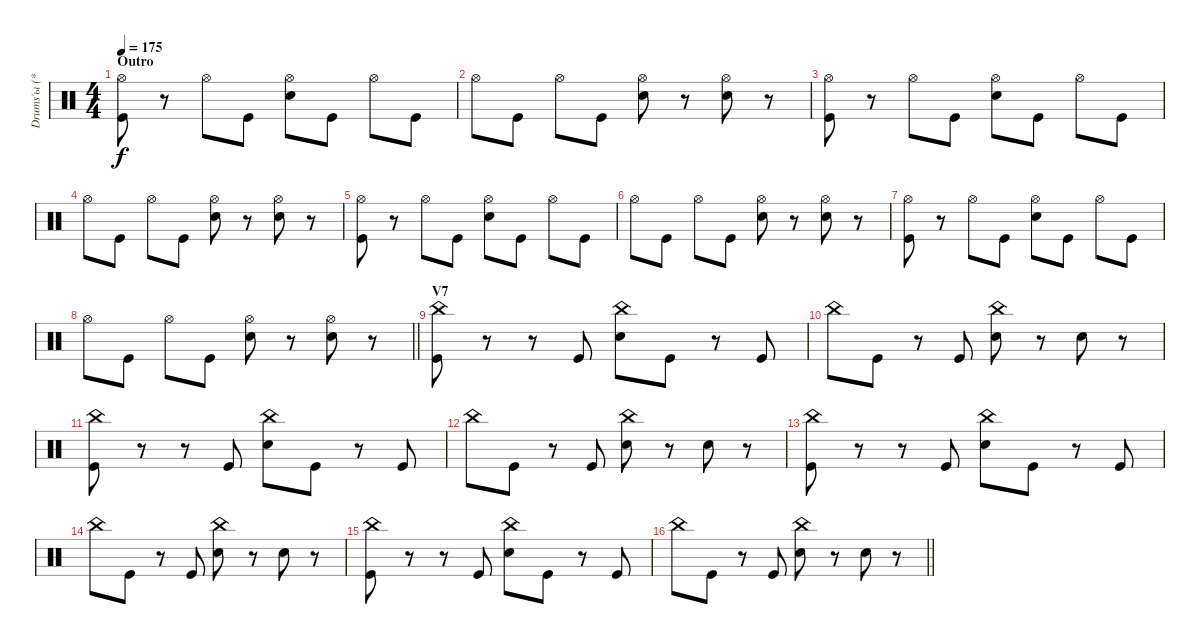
\track ("Drums'ы (***)" "Drums'ы (*") {instrument percussion}
\staff {score}
\articulation defaults
\ts (4 4)
\section ("" "Outro")
\tempo 175
\clef neutral
\ks c
("Hi-Hat (open)" "Kick (hit)").8{dy f} r.8 "Hi-Hat (open)".8 "Kick (hit)".8 ("Hi-Hat (open)" "Electric Snare (hit)").8 "Kick (hit)".8 "Hi-Hat (open)".8 "Kick (hit)".8 |
"Hi-Hat (open)".8 "Kick (hit)".8 "Hi-Hat (open)".8 "Kick (hit)".8 ("Hi-Hat (open)" "Electric Snare (hit)").8 r.8 ("Hi-Hat (open)" "Electric Snare (hit)").8 r.8 |
("Hi-Hat (open)" "Kick (hit)").8 r.8 "Hi-Hat (open)".8 "Kick (hit)".8 ("Hi-Hat (open)" "Electric Snare (hit)").8 "Kick (hit)".8 "Hi-Hat (open)".8 "Kick (hit)".8 |
"Hi-Hat (open)".8 "Kick (hit)".8 "Hi-Hat (open)".8 "Kick (hit)".8 ("Hi-Hat (open)" "Electric Snare (hit)").8 r.8 ("Hi-Hat (open)" "Electric Snare (hit)").8 r.8 |
("Hi-Hat (open)" "Kick (hit)").8 r.8 "Hi-Hat (open)".8 "Kick (hit)".8 ("Hi-Hat (open)" "Electric Snare (hit)").8 "Kick (hit)".8 "Hi-Hat (open)".8 "Kick (hit)".8 |
"Hi-Hat (open)".8 "Kick (hit)".8 "Hi-Hat (open)".8 "Kick (hit)".8 ("Hi-Hat (open)" "Electric Snare (hit)").8 r.8 ("Hi-Hat (open)" "Electric Snare (hit)").8 r.8 |
("Hi-Hat (open)" "Kick (hit)").8 r.8 "Hi-Hat (open)".8 "Kick (hit)".8 ("Hi-Hat (open)" "Electric Snare (hit)").8 "Kick (hit)".8 "Hi-Hat (open)".8 "Kick (hit)".8 |
\barLineRight lightlight "Hi-Hat (open)".8 "Kick (hit)".8 "Hi-Hat (open)".8 "Kick (hit)".8
("Hi-Hat (open)" "Electric Snare (hit)").8 r.8 ("Hi-Hat (open)" "Electric Snare (hit)").8 r.8 |
\section ("" "V7")
("China (hit)" "Kick (hit)").8 r.8 r.8 "Kick (hit)".8 ("China (hit)" "Electric Snare (hit)").8 "Kick (hit)".8 r.8 "Kick (hit)".8 |
"China (hit)".8 "Kick (hit)".8 r.8 "Kick (hit)".8 ("China (hit)" "Electric Snare (hit)").8 r.8 "Electric Snare (hit)".8 r.8 |
("China (hit)" "Kick (hit)").8 r.8 r.8 "Kick (hit)".8 ("China (hit)" "Electric Snare (hit)").8 "Kick (hit)".8 r.8 "Kick (hit)".8 |
"China (hit)".8 "Kick (hit)".8 r.8 "Kick (hit)".8 ("China (hit)" "Electric Snare (hit)").8 r.8 "Electric Snare (hit)".8 r.8 |
("China (hit)" "Kick (hit)").8 r.8 r.8 "Kick (hit)".8 ("China (hit)" "Electric Snare (hit)").8 "Kick (hit)".8 r.8 "Kick (hit)".8 |
"China (hit)".8 "Kick (hit)".8 r.8 "Kick (hit)".8 ("China (hit)" "Electric Snare (hit)").8 r.8 "Electric Snare (hit)".8 r.8 |
("China (hit)" "Kick (hit)").8 r.8 r.8 "Kick (hit)".8 ("China (hit)" "Electric Snare (hit)").8 "Kick (hit)".8 r.8 "Kick (hit)".8 |
\barLineRight lightlight "China (hit)".8 "Kick (hit)".8
r.8 "Kick (hit)".8 ("China (hit)" "Electric Snare (hit)").8 r.8 "Electric Snare (hit)".8 r.8
